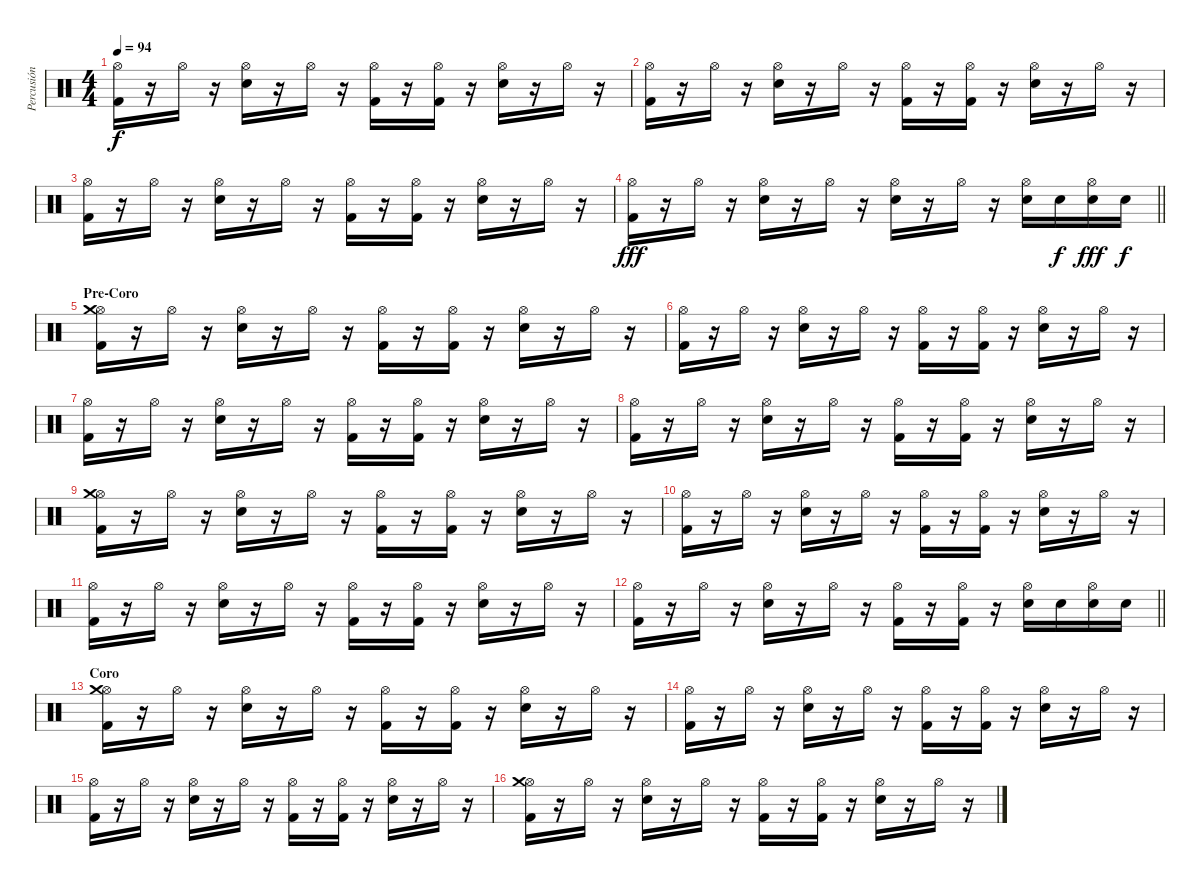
\track ("Percusión" "Percusión") {instrument percussion}
\staff {score}
\articulation defaults
\ts (4 4)
\tempo 94
\clef neutral
\ks c
("Hi-Hat (open)" "Kick (hit) 2").16{dy f} r.16 "Hi-Hat (open)".16 r.16 ("Hi-Hat (open)" "Electric Snare (hit)").16 r.16 "Hi-Hat (open)".16 r.16 ("Hi-Hat (open)" "Kick (hit) 2").16 r.16 ("Hi-Hat (open)" "Kick (hit) 2").16 r.16 ("Hi-Hat (open)" "Electric Snare (hit)").16 r.16 "Hi-Hat (open)".16 r.16 |
("Hi-Hat (open)" "Kick (hit) 2").16 r.16 "Hi-Hat (open)".16 r.16 ("Hi-Hat (open)" "Electric Snare (hit)").16 r.16 "Hi-Hat (open)".16 r.16 ("Hi-Hat (open)" "Kick (hit) 2").16 r.16 ("Hi-Hat (open)" "Kick (hit) 2").16 r.16 ("Hi-Hat (open)" "Electric Snare (hit)").16 r.16 "Hi-Hat (open)".16 r.16 |
("Hi-Hat (open)" "Kick (hit) 2").16 r.16 "Hi-Hat (open)".16 r.16 ("Hi-Hat (open)" "Electric Snare (hit)").16 r.16 "Hi-Hat (open)".16 r.16 ("Hi-Hat (open)" "Kick (hit) 2").16 r.16 ("Hi-Hat (open)" "Kick (hit) 2").16 r.16 ("Hi-Hat (open)" "Electric Snare (hit)").16 r.16 "Hi-Hat (open)".16 r.16 |
\barLineRight lightlight
("Hi-Hat (open)" "Kick (hit) 2").16{dy fff} r.16 "Hi-Hat (open)".16 r.16 ("Hi-Hat (open)" "Electric Snare (hit)").16 r.16 "Hi-Hat (open)".16 r.16 ("Hi-Hat (open)" "Electric Snare (hit)").16 r.16 "Hi-Hat (open)".16 r.16 ("Hi-Hat (open)" "Electric Snare (hit)").16 "Electric Snare (hit)".16{dy f} ("Hi-Hat (open)" "Electric Snare (hit)").16{dy fff} "Electric Snare (hit)".16{dy f} |
\section ("" "Pre-Coro")
("Hi-Hat (open)" "Kick (hit) 2" "Crash medium (hit)").16 r.16 "Hi-Hat (open)".16 r.16 ("Hi-Hat (open)" "Electric Snare (hit)").16 r.16 "Hi-Hat (open)".16 r.16 ("Hi-Hat (open)" "Kick (hit) 2").16 r.16 ("Hi-Hat (open)" "Kick (hit) 2").16 r.16 ("Hi-Hat (open)" "Electric Snare (hit)").16 r.16 "Hi-Hat (open)".16 r.16 |
("Hi-Hat (open)" "Kick (hit) 2").16 r.16 "Hi-Hat (open)".16 r.16 ("Hi-Hat (open)" "Electric Snare (hit)").16 r.16 "Hi-Hat (open)".16 r.16 ("Hi-Hat (open)" "Kick (hit) 2").16 r.16 ("Hi-Hat (open)" "Kick (hit) 2").16 r.16 ("Hi-Hat (open)" "Electric Snare (hit)").16 r.16 "Hi-Hat (open)".16 r.16 |
("Hi-Hat (open)" "Kick (hit) 2").16 r.16 "Hi-Hat (open)".16 r.16 ("Hi-Hat (open)" "Electric Snare (hit)").16 r.16 "Hi-Hat (open)".16 r.16 ("Hi-Hat (open)" "Kick (hit) 2").16 r.16 ("Hi-Hat (open)" "Kick (hit) 2").16 r.16 ("Hi-Hat (open)" "Electric Snare (hit)").16 r.16 "Hi-Hat (open)".16 r.16 |
("Hi-Hat (open)" "Kick (hit) 2").16 r.16 "Hi-Hat (open)".16 r.16 ("Hi-Hat (open)" "Electric Snare (hit)").16 r.16 "Hi-Hat (open)".16 r.16 ("Hi-Hat (open)" "Kick (hit) 2").16 r.16 ("Hi-Hat (open)" "Kick (hit) 2").16 r.16 ("Hi-Hat (open)" "Electric Snare (hit)").16 r.16 "Hi-Hat (open)".16 r.16 |
("Hi-Hat (open)" "Kick (hit) 2" "Crash medium (hit)").16 r.16 "Hi-Hat (open)".16 r.16 ("Hi-Hat (open)" "Electric Snare (hit)").16 r.16 "Hi-Hat (open)".16 r.16 ("Hi-Hat (open)" "Kick (hit) 2").16 r.16 ("Hi-Hat (open)" "Kick (hit) 2").16 r.16 ("Hi-Hat (open)" "Electric Snare (hit)").16 r.16 "Hi-Hat (open)".16 r.16 |
("Hi-Hat (open)" "Kick (hit) 2").16 r.16 "Hi-Hat (open)".16 r.16 ("Hi-Hat (open)" "Electric Snare (hit)").16 r.16 "Hi-Hat (open)".16 r.16 ("Hi-Hat (open)" "Kick (hit) 2").16 r.16 ("Hi-Hat (open)" "Kick (hit) 2").16 r.16 ("Hi-Hat (open)" "Electric Snare (hit)").16 r.16 "Hi-Hat (open)".16 r.16 |
("Hi-Hat (open)" "Kick (hit) 2").16 r.16 "Hi-Hat (open)".16 r.16 ("Hi-Hat (open)" "Electric Snare (hit)").16 r.16 "Hi-Hat (open)".16 r.16 ("Hi-Hat (open)" "Kick (hit) 2").16 r.16 ("Hi-Hat (open)" "Kick (hit) 2").16 r.16 ("Hi-Hat (open)" "Electric Snare (hit)").16 r.16 "Hi-Hat (open)".16 r.16 |
\barLineRight lightlight
("Hi-Hat (open)" "Kick (hit) 2").16 r.16 "Hi-Hat (open)".16 r.16 ("Hi-Hat (open)" "Electric Snare (hit)").16 r.16 "Hi-Hat (open)".16 r.16 ("Hi-Hat (open)" "Kick (hit) 2").16 r.16 ("Hi-Hat (open)" "Kick (hit) 2").16 r.16 ("Hi-Hat (open)" "Snare (hit) 2").16 "Snare (hit) 2".16 ("Hi-Hat (open)" "Snare (hit) 2").16 "Snare (hit) 2".16 |
\section ("" "Coro")
("Hi-Hat (open)" "Kick (hit) 2" "Crash medium (hit)").16 r.16 "Hi-Hat (open)".16 r.16 ("Hi-Hat (open)" "Electric Snare (hit)").16 r.16 "Hi-Hat (open)".16 r.16 ("Hi-Hat (open)" "Kick (hit) 2").16 r.16 ("Hi-Hat (open)" "Kick (hit) 2").16 r.16 ("Hi-Hat (open)" "Electric Snare (hit)").16 r.16 "Hi-Hat (open)".16 r.16 |
("Hi-Hat (open)" "Kick (hit) 2").16 r.16 "Hi-Hat (open)".16 r.16 ("Hi-Hat (open)" "Electric Snare (hit)").16 r.16 "Hi-Hat (open)".16 r.16 ("Hi-Hat (open)" "Kick (hit) 2").16 r.16 ("Hi-Hat (open)" "Kick (hit) 2").16 r.16 ("Hi-Hat (open)" "Electric Snare (hit)").16 r.16 "Hi-Hat (open)".16 r.16 |
("Hi-Hat (open)" "Kick (hit) 2").16 r.16 "Hi-Hat (open)".16 r.16 ("Hi-Hat (open)" "Electric Snare (hit)").16 r.16 "Hi-Hat (open)".16 r.16 ("Hi-Hat (open)" "Kick (hit) 2").16 r.16 ("Hi-Hat (open)" "Kick (hit) 2").16 r.16 ("Hi-Hat (open)" "Electric Snare (hit)").16 r.16 "Hi-Hat (open)".16 r.16 |
("Hi-Hat (open)" "Kick (hit) 2" "Crash medium (hit)").16 r.16 "Hi-Hat (open)".16 r.16 ("Hi-Hat (open)" "Electric Snare (hit)").16 r.16 "Hi-Hat (open)".16 r.16 ("Hi-Hat (open)" "Kick (hit) 2").16 r.16 ("Hi-Hat (open)" "Kick (hit) 2").16 r.16 ("Hi-Hat (open)" "Electric Snare (hit)").16 r.16 "Hi-Hat (open)".16 r.16
